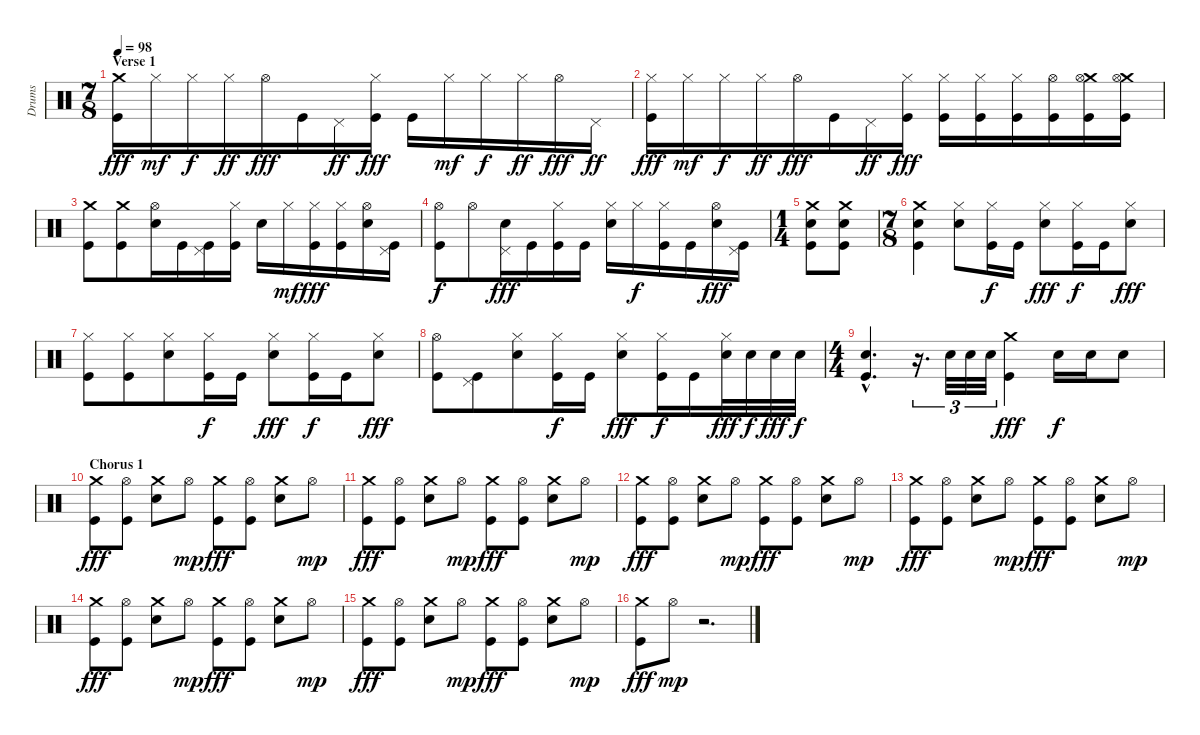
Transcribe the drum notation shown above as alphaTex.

\track ("Drums" "Drums") {instrument percussion}
\staff {score}
\articulation defaults
\ts (7 8)
\section ("" "Verse 1")
\tempo 98
\clef neutral
\ks c
("Crash medium (hit)" "Kick (hit)").16{dy fff} "Hi-Hat (closed)".16{dy mf} "Hi-Hat (closed)".16{dy f} "Hi-Hat (closed)".16{dy ff} "Hi-Hat (open)".16{dy fff} "Kick (hit)".16 "Pedal Hi-Hat (hit)".16{dy ff} ("Hi-Hat (closed)" "Kick (hit)").16{dy fff} "Kick (hit)".16 "Hi-Hat (closed)".16{dy mf} "Hi-Hat (closed)".16{dy f} "Hi-Hat (closed)".16{dy ff} "Hi-Hat (open)".16{dy fff} "Pedal Hi-Hat (hit)".16{dy ff} |
("Hi-Hat (closed)" "Kick (hit)").16{dy fff} "Hi-Hat (closed)".16{dy mf} "Hi-Hat (closed)".16{dy f} "Hi-Hat (closed)".16{dy ff} "Hi-Hat (open)".16{dy fff} "Kick (hit)".16 "Pedal Hi-Hat (hit)".16{dy ff} ("Hi-Hat (closed)" "Kick (hit)").16{dy fff} ("Hi-Hat (closed)" "Kick (hit)").16 ("Hi-Hat (closed)" "Kick (hit)").16 ("Hi-Hat (closed)" "Kick (hit)").16 ("Hi-Hat (open)" "Kick (hit)").16 ("Crash medium (hit)" "Hi-Hat (open)" "Kick (hit)").16 ("Crash medium (hit)" "Hi-Hat (open)" "Kick (hit)").16 |
("Crash medium (hit)" "Kick (hit)").8 ("Crash medium (hit)" "Kick (hit)").8 ("Hi-Hat (open)" "Electric Snare (hit)").16 "Kick (hit)".16 ("Pedal Hi-Hat (hit)" "Kick (hit)").16 ("Hi-Hat (closed)" "Kick (hit)").16 "Electric Snare (hit)".16 "Hi-Hat (closed)".16{dy mf} ("Hi-Hat (closed)" "Kick (hit)").16{dy fff} ("Hi-Hat (closed)" "Kick (hit)").16 ("Hi-Hat (open)" "Electric Snare (hit)").16 ("Pedal Hi-Hat (hit)" "Kick (hit)").16 |
("Hi-Hat (open)" "Kick (hit)").8{dy f} "Hi-Hat (open)".8 ("Pedal Hi-Hat (hit)" "Electric Snare (hit)").16{dy fff} "Kick (hit)".16 ("Hi-Hat (closed)" "Kick (hit)").16 "Kick (hit)".16 ("Hi-Hat (closed)" "Electric Snare (hit)").16 "Hi-Hat (closed)".16{dy f} ("Hi-Hat (closed)" "Kick (hit)").16 "Kick (hit)".16 ("Hi-Hat (open)" "Electric Snare (hit)").16{dy fff} ("Pedal Hi-Hat (hit)" "Kick (hit)").16 |
\ts (1 4)
("Crash medium (hit)" "Electric Snare (hit)" "Kick (hit)").8 ("Crash medium (hit)" "Electric Snare (hit)" "Kick (hit)").8 |
\ts (7 8)
("Crash medium (hit)" "Electric Snare (hit)" "Kick (hit)").4 ("Hi-Hat (closed)" "Electric Snare (hit)").8 ("Hi-Hat (closed)" "Kick (hit)").16{dy f} "Kick (hit)".16 ("Hi-Hat (closed)" "Electric Snare (hit)").8{dy fff} ("Hi-Hat (closed)" "Kick (hit)").16{dy f} "Kick (hit)".16 ("Hi-Hat (closed)" "Electric Snare (hit)").8{dy fff} |
("Hi-Hat (closed)" "Kick (hit)").8 ("Hi-Hat (closed)" "Kick (hit)").8 ("Hi-Hat (closed)" "Electric Snare (hit)").8 ("Hi-Hat (closed)" "Kick (hit)").16{dy f} "Kick (hit)".16 ("Hi-Hat (closed)" "Electric Snare (hit)").8{dy fff} ("Hi-Hat (closed)" "Kick (hit)").16{dy f} "Kick (hit)".16 ("Hi-Hat (closed)" "Electric Snare (hit)").8{dy fff} |
("Hi-Hat (open)" "Kick (hit)").8 ("Pedal Hi-Hat (hit)" "Kick (hit)").8 ("Hi-Hat (closed)" "Electric Snare (hit)").8 ("Hi-Hat (closed)" "Kick (hit)").16{dy f} "Kick (hit)".16 ("Hi-Hat (closed)" "Electric Snare (hit)").8{dy fff} ("Hi-Hat (closed)" "Kick (hit)").16{dy f} "Kick (hit)".16 ("Hi-Hat (closed)" "Electric Snare (hit)").32{dy fff} "Electric Snare (hit)".32{dy f} "Electric Snare (hit)".32{dy fff} "Electric Snare (hit)".32{dy f} |
\ts (4 4)
("Electric Snare (hit)"{hac} "Kick (hit)"{hac}).4{d} r.16{d tu (3 2)} "Electric Snare (hit)".32{tu (3 2)} "Electric Snare (hit)".32{tu (3 2)} "Electric Snare (hit)".32{tu (3 2)} ("Crash medium (hit)" "Kick (hit)").4{dy fff} "Snare (hit) 2".16{dy f volume 16} "Snare (hit) 2".16 "Snare (hit) 2".8 |
\section ("" "Chorus 1")
("Crash medium (hit)" "Kick (hit)").8{dy fff} ("Hi-Hat (open)" "Kick (hit)").8 ("Crash medium (hit)" "Snare (hit) 2").8 "Hi-Hat (open)".8{dy mp} ("Crash medium (hit)" "Kick (hit)").8{dy fff} ("Hi-Hat (open)" "Kick (hit)").8 ("Crash medium (hit)" "Snare (hit) 2").8 "Hi-Hat (open)".8{dy mp} |
("Crash medium (hit)" "Kick (hit)").8{dy fff} ("Hi-Hat (open)" "Kick (hit)").8 ("Crash medium (hit)" "Snare (hit) 2").8 "Hi-Hat (open)".8{dy mp} ("Crash medium (hit)" "Kick (hit)").8{dy fff} ("Hi-Hat (open)" "Kick (hit)").8 ("Crash medium (hit)" "Snare (hit) 2").8 "Hi-Hat (open)".8{dy mp} |
("Crash medium (hit)" "Kick (hit)").8{dy fff} ("Hi-Hat (open)" "Kick (hit)").8 ("Crash medium (hit)" "Snare (hit) 2").8 "Hi-Hat (open)".8{dy mp} ("Crash medium (hit)" "Kick (hit)").8{dy fff} ("Hi-Hat (open)" "Kick (hit)").8 ("Crash medium (hit)" "Snare (hit) 2").8 "Hi-Hat (open)".8{dy mp} |
("Crash medium (hit)" "Kick (hit)").8{dy fff} ("Hi-Hat (open)" "Kick (hit)").8 ("Crash medium (hit)" "Snare (hit) 2").8 "Hi-Hat (open)".8{dy mp} ("Crash medium (hit)" "Kick (hit)").8{dy fff} ("Hi-Hat (open)" "Kick (hit)").8 ("Crash medium (hit)" "Snare (hit) 2").8 "Hi-Hat (open)".8{dy mp} |
("Crash medium (hit)" "Kick (hit)").8{dy fff} ("Hi-Hat (open)" "Kick (hit)").8 ("Crash medium (hit)" "Snare (hit) 2").8 "Hi-Hat (open)".8{dy mp} ("Crash medium (hit)" "Kick (hit)").8{dy fff} ("Hi-Hat (open)" "Kick (hit)").8 ("Crash medium (hit)" "Snare (hit) 2").8 "Hi-Hat (open)".8{dy mp} |
("Crash medium (hit)" "Kick (hit)").8{dy fff} ("Hi-Hat (open)" "Kick (hit)").8 ("Crash medium (hit)" "Snare (hit) 2").8 "Hi-Hat (open)".8{dy mp} ("Crash medium (hit)" "Kick (hit)").8{dy fff} ("Hi-Hat (open)" "Kick (hit)").8 ("Crash medium (hit)" "Snare (hit) 2").8 "Hi-Hat (open)".8{dy mp} |
("Crash medium (hit)" "Kick (hit)").8{dy fff} "Hi-Hat (open)".8{dy mp} r.2{d}
